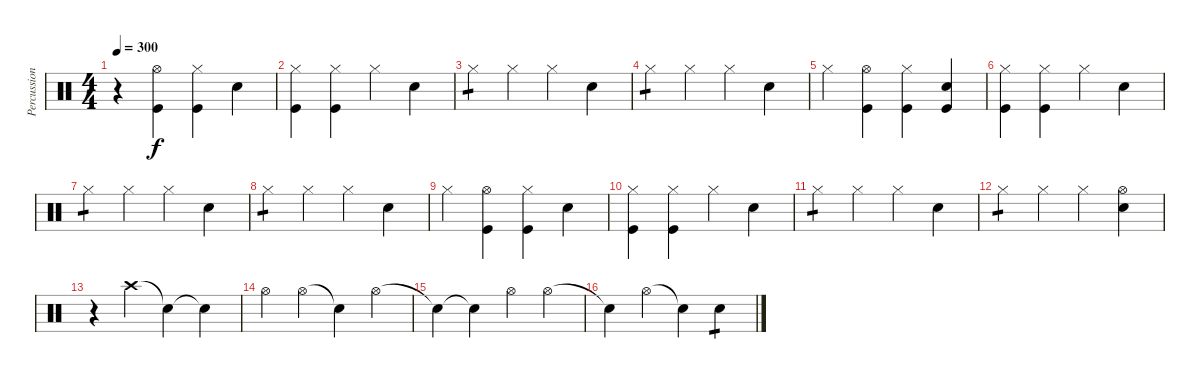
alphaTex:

\track ("Percussion" "Percussion") {instrument percussion}
\staff {score}
\articulation defaults
\ts (4 4)
\tempo 300
\clef neutral
\ks c
r.4{dy f} ("Kick (hit)" "Hi-Hat (open)").4 ("Kick (hit)" "Hi-Hat (closed)").4 "Electric Snare (hit)".4 |
("Kick (hit)" "Hi-Hat (closed)").4 ("Kick (hit)" "Hi-Hat (closed)").4 "Hi-Hat (closed)".4 "Electric Snare (hit)".4 |
"Hi-Hat (closed)".4{tp 1} "Hi-Hat (closed)".4 "Hi-Hat (closed)".4 "Electric Snare (hit)".4 |
"Hi-Hat (closed)".4{tp 1} "Hi-Hat (closed)".4 "Hi-Hat (closed)".4 "Electric Snare (hit)".4 |
"Hi-Hat (closed)".4 ("Kick (hit)" "Hi-Hat (open)").4 ("Kick (hit)" "Hi-Hat (closed)").4 ("Kick (hit)" "Electric Snare (hit)").4 |
("Kick (hit)" "Hi-Hat (closed)").4 ("Kick (hit)" "Hi-Hat (closed)").4 "Hi-Hat (closed)".4 "Electric Snare (hit)".4 |
"Hi-Hat (closed)".4{tp 1} "Hi-Hat (closed)".4 "Hi-Hat (closed)".4 "Electric Snare (hit)".4 |
"Hi-Hat (closed)".4{tp 1} "Hi-Hat (closed)".4 "Hi-Hat (closed)".4 "Electric Snare (hit)".4 |
"Hi-Hat (closed)".4 ("Kick (hit)" "Hi-Hat (open)").4 ("Kick (hit)" "Hi-Hat (closed)").4 "Electric Snare (hit)".4 |
("Kick (hit)" "Hi-Hat (closed)").4 ("Kick (hit)" "Hi-Hat (closed)").4 "Hi-Hat (closed)".4 "Electric Snare (hit)".4 |
"Hi-Hat (closed)".4{tp 1} "Hi-Hat (closed)".4 "Hi-Hat (closed)".4 "Electric Snare (hit)".4 |
"Hi-Hat (closed)".4{tp 1} "Hi-Hat (closed)".4 "Hi-Hat (closed)".4 ("Electric Snare (hit)" "Hi-Hat (open)").4 |
r.4 "Crash high (hit)".4 "Snare (hit)"{t}.4 "Snare (hit)"{t}.4 |
"Hi-Hat (open)".4 "Hi-Hat (open)".4 "Snare (hit)"{t}.4 "Hi-Hat (open)".4 |
"Snare (hit)"{t}.4 "Snare (hit)"{t}.4 "Hi-Hat (open)".4 "Hi-Hat (open)".4 |
"Snare (hit)"{t}.4 "Hi-Hat (open)".4 "Snare (hit)"{t}.4 "Electric Snare (hit)".4{tp 1}
